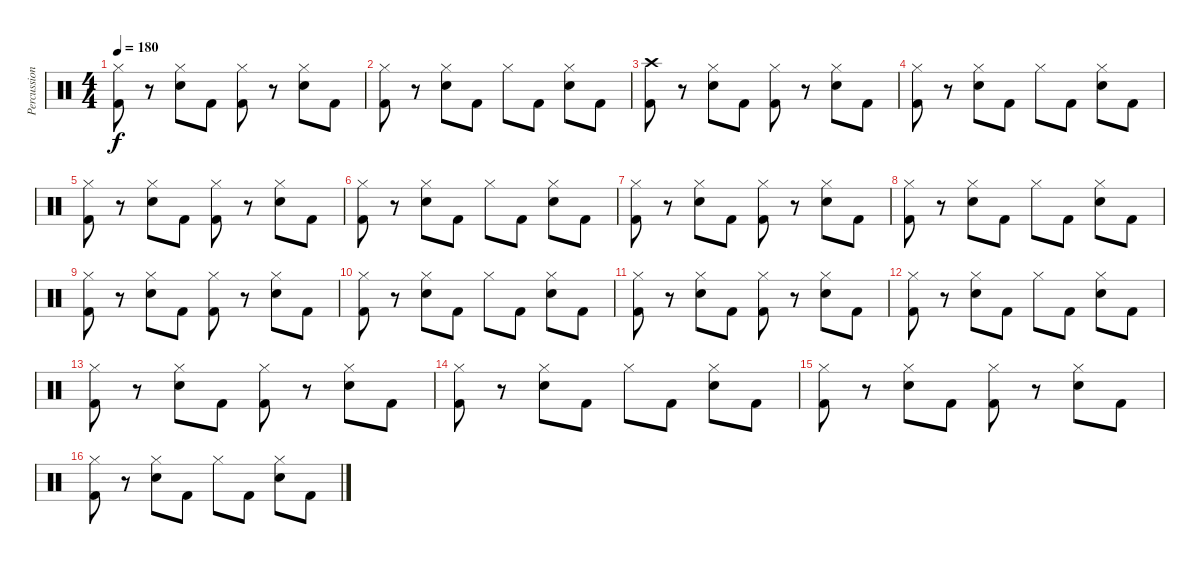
\track ("Percussion" "Percussion") {instrument percussion}
\staff {score}
\articulation defaults
\ts (4 4)
\tempo 180
\clef neutral
\ks c
("Hi-Hat (closed)" "Kick (hit) 2").8{dy f} r.8 ("Hi-Hat (closed)" "Snare (hit) 2").8 "Kick (hit) 2".8 ("Hi-Hat (closed)" "Kick (hit) 2").8 r.8 ("Hi-Hat (closed)" "Snare (hit) 2").8 "Kick (hit) 2".8 |
("Hi-Hat (closed)" "Kick (hit) 2").8 r.8 ("Hi-Hat (closed)" "Snare (hit) 2").8 "Kick (hit) 2".8 "Hi-Hat (closed)".8 "Kick (hit) 2".8 ("Hi-Hat (closed)" "Snare (hit) 2").8 "Kick (hit) 2".8 |
("Crash high (hit)" "Kick (hit) 2").8 r.8 ("Hi-Hat (closed)" "Snare (hit) 2").8 "Kick (hit) 2".8 ("Hi-Hat (closed)" "Kick (hit) 2").8 r.8 ("Hi-Hat (closed)" "Snare (hit) 2").8 "Kick (hit) 2".8 |
("Hi-Hat (closed)" "Kick (hit) 2").8 r.8 ("Hi-Hat (closed)" "Snare (hit) 2").8 "Kick (hit) 2".8 "Hi-Hat (closed)".8 "Kick (hit) 2".8 ("Hi-Hat (closed)" "Snare (hit) 2").8 "Kick (hit) 2".8 |
("Hi-Hat (closed)" "Kick (hit) 2").8 r.8 ("Hi-Hat (closed)" "Snare (hit) 2").8 "Kick (hit) 2".8 ("Hi-Hat (closed)" "Kick (hit) 2").8 r.8 ("Hi-Hat (closed)" "Snare (hit) 2").8 "Kick (hit) 2".8 |
("Hi-Hat (closed)" "Kick (hit) 2").8 r.8 ("Hi-Hat (closed)" "Snare (hit) 2").8 "Kick (hit) 2".8 "Hi-Hat (closed)".8 "Kick (hit) 2".8 ("Hi-Hat (closed)" "Snare (hit) 2").8 "Kick (hit) 2".8 |
("Hi-Hat (closed)" "Kick (hit) 2").8 r.8 ("Hi-Hat (closed)" "Snare (hit) 2").8 "Kick (hit) 2".8 ("Hi-Hat (closed)" "Kick (hit) 2").8 r.8 ("Hi-Hat (closed)" "Snare (hit) 2").8 "Kick (hit) 2".8 |
("Hi-Hat (closed)" "Kick (hit) 2").8 r.8 ("Hi-Hat (closed)" "Snare (hit) 2").8 "Kick (hit) 2".8 "Hi-Hat (closed)".8 "Kick (hit) 2".8 ("Hi-Hat (closed)" "Snare (hit) 2").8 "Kick (hit) 2".8 |
("Hi-Hat (closed)" "Kick (hit) 2").8 r.8 ("Hi-Hat (closed)" "Snare (hit) 2").8 "Kick (hit) 2".8 ("Hi-Hat (closed)" "Kick (hit) 2").8 r.8 ("Hi-Hat (closed)" "Snare (hit) 2").8 "Kick (hit) 2".8 |
("Hi-Hat (closed)" "Kick (hit) 2").8 r.8 ("Hi-Hat (closed)" "Snare (hit) 2").8 "Kick (hit) 2".8 "Hi-Hat (closed)".8 "Kick (hit) 2".8 ("Hi-Hat (closed)" "Snare (hit) 2").8 "Kick (hit) 2".8 |
("Hi-Hat (closed)" "Kick (hit) 2").8 r.8 ("Hi-Hat (closed)" "Snare (hit) 2").8 "Kick (hit) 2".8 ("Hi-Hat (closed)" "Kick (hit) 2").8 r.8 ("Hi-Hat (closed)" "Snare (hit) 2").8 "Kick (hit) 2".8 |
("Hi-Hat (closed)" "Kick (hit) 2").8 r.8 ("Hi-Hat (closed)" "Snare (hit) 2").8 "Kick (hit) 2".8 "Hi-Hat (closed)".8 "Kick (hit) 2".8 ("Hi-Hat (closed)" "Snare (hit) 2").8 "Kick (hit) 2".8 |
("Hi-Hat (closed)" "Kick (hit) 2").8 r.8 ("Hi-Hat (closed)" "Snare (hit) 2").8 "Kick (hit) 2".8 ("Hi-Hat (closed)" "Kick (hit) 2").8 r.8 ("Hi-Hat (closed)" "Snare (hit) 2").8 "Kick (hit) 2".8 |
("Hi-Hat (closed)" "Kick (hit) 2").8 r.8 ("Hi-Hat (closed)" "Snare (hit) 2").8 "Kick (hit) 2".8 "Hi-Hat (closed)".8 "Kick (hit) 2".8 ("Hi-Hat (closed)" "Snare (hit) 2").8 "Kick (hit) 2".8 |
("Hi-Hat (closed)" "Kick (hit) 2").8 r.8 ("Hi-Hat (closed)" "Snare (hit) 2").8 "Kick (hit) 2".8 ("Hi-Hat (closed)" "Kick (hit) 2").8 r.8 ("Hi-Hat (closed)" "Snare (hit) 2").8 "Kick (hit) 2".8 |
("Hi-Hat (closed)" "Kick (hit) 2").8 r.8 ("Hi-Hat (closed)" "Snare (hit) 2").8 "Kick (hit) 2".8 "Hi-Hat (closed)".8 "Kick (hit) 2".8 ("Hi-Hat (closed)" "Snare (hit) 2").8 "Kick (hit) 2".8
